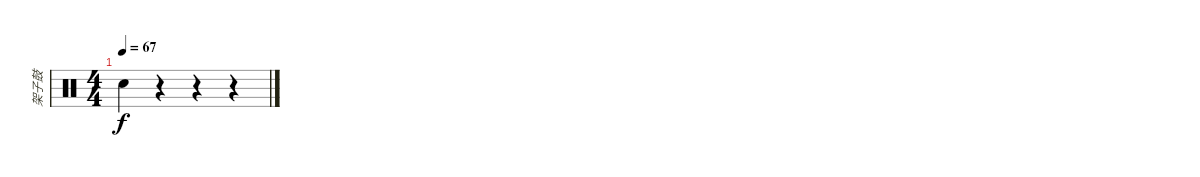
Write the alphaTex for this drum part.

\track ("架子鼓" "架子鼓") {instrument percussion}
\staff {score}
\articulation defaults
\ts (4 4)
\tempo 67
\clef neutral
\ks c "Snare (hit)"{t}.4{dy f}
r.4 r.4 r.4
